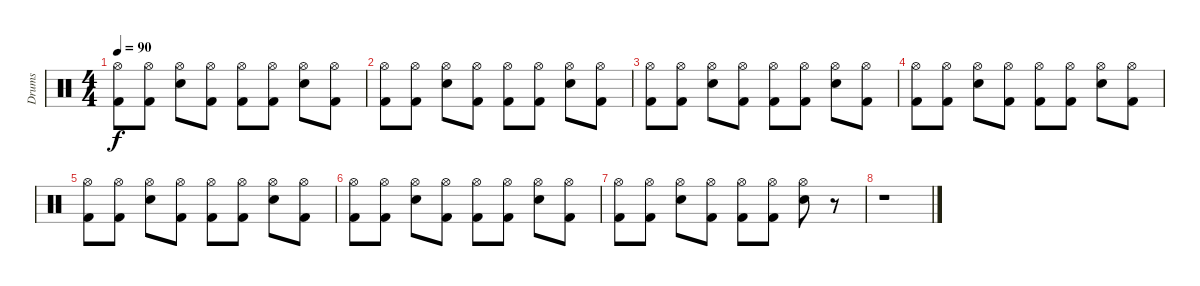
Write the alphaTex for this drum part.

\track ("Drums" "Drums") {instrument percussion}
\staff {score}
\articulation defaults
\ts (4 4)
\tempo 90
\clef neutral
\ks c
("Kick (hit) 2" "Hi-Hat (open)").8{dy f} ("Hi-Hat (open)" "Kick (hit) 2").8 ("Hi-Hat (open)" "Snare (hit) 2").8 ("Kick (hit) 2" "Hi-Hat (open)").8 ("Kick (hit) 2" "Hi-Hat (open)").8 ("Kick (hit) 2" "Hi-Hat (open)").8 ("Hi-Hat (open)" "Snare (hit) 2").8 ("Hi-Hat (open)" "Kick (hit) 2").8 |
("Hi-Hat (open)" "Kick (hit) 2").8 ("Kick (hit) 2" "Hi-Hat (open)").8 ("Snare (hit) 2" "Hi-Hat (open)").8 ("Kick (hit) 2" "Hi-Hat (open)").8 ("Kick (hit) 2" "Hi-Hat (open)").8 ("Kick (hit) 2" "Hi-Hat (open)").8 ("Snare (hit) 2" "Hi-Hat (open)").8 ("Hi-Hat (open)" "Kick (hit) 2").8 |
("Kick (hit) 2" "Hi-Hat (open)").8 ("Hi-Hat (open)" "Kick (hit) 2").8 ("Snare (hit) 2" "Hi-Hat (open)").8 ("Hi-Hat (open)" "Kick (hit) 2").8 ("Kick (hit) 2" "Hi-Hat (open)").8 ("Kick (hit) 2" "Hi-Hat (open)").8 ("Snare (hit) 2" "Hi-Hat (open)").8 ("Kick (hit) 2" "Hi-Hat (open)").8 |
("Hi-Hat (open)" "Kick (hit) 2").8 ("Kick (hit) 2" "Hi-Hat (open)").8 ("Snare (hit) 2" "Hi-Hat (open)").8 ("Kick (hit) 2" "Hi-Hat (open)").8 ("Kick (hit) 2" "Hi-Hat (open)").8 ("Kick (hit) 2" "Hi-Hat (open)").8 ("Snare (hit) 2" "Hi-Hat (open)").8 ("Hi-Hat (open)" "Kick (hit) 2").8 |
("Kick (hit) 2" "Hi-Hat (open)").8 ("Hi-Hat (open)" "Kick (hit) 2").8 ("Snare (hit) 2" "Hi-Hat (open)").8 ("Hi-Hat (open)" "Kick (hit) 2").8 ("Kick (hit) 2" "Hi-Hat (open)").8 ("Kick (hit) 2" "Hi-Hat (open)").8 ("Snare (hit) 2" "Hi-Hat (open)").8 ("Kick (hit) 2" "Hi-Hat (open)").8 |
("Hi-Hat (open)" "Kick (hit) 2").8 ("Kick (hit) 2" "Hi-Hat (open)").8 ("Snare (hit) 2" "Hi-Hat (open)").8 ("Kick (hit) 2" "Hi-Hat (open)").8 ("Kick (hit) 2" "Hi-Hat (open)").8 ("Kick (hit) 2" "Hi-Hat (open)").8 ("Snare (hit) 2" "Hi-Hat (open)").8 ("Hi-Hat (open)" "Kick (hit) 2").8 |
("Hi-Hat (open)" "Kick (hit) 2").8 ("Kick (hit) 2" "Hi-Hat (open)").8 ("Hi-Hat (open)" "Snare (hit) 2").8 ("Hi-Hat (open)" "Kick (hit) 2").8 ("Kick (hit) 2" "Hi-Hat (open)").8 ("Kick (hit) 2" "Hi-Hat (open)").8 ("Hi-Hat (open)" "Snare (hit) 2").8 r.8 |
r.1
